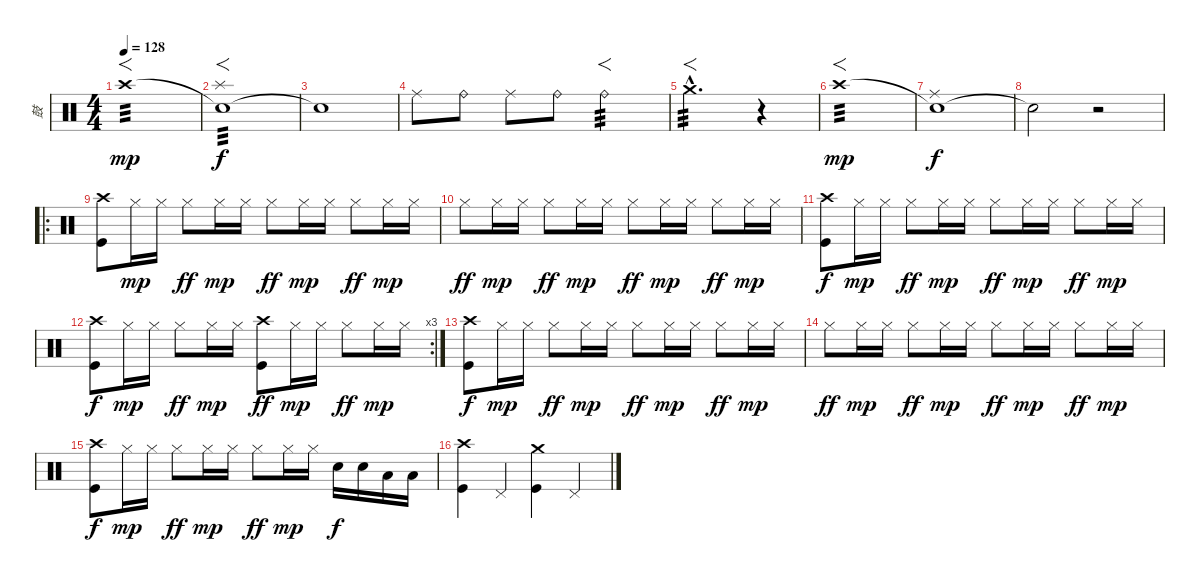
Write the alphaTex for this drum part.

\track ("鼓" "鼓") {instrument percussion}
\staff {score}
\articulation defaults
\ts (4 4)
\tempo 128
\clef neutral
\ks c "Crash high (hit)".1{f tp 3 dy mp}
|
("Snare (hit)"{t} "Splash (hit)").1{f tp 3 dy f} |
"Snare (hit)"{t}.1 |
"Ride (middle)".8 "Ride (bell)".8 "Ride (middle)".8 "Ride (bell)".8 "Ride (bell)".2{f tp 3} |
"Crash medium (hit)"{hac}.2{f d tp 3} r.4 |
"Crash high (hit)".1{f tp 3 dy mp} |
("Snare (hit)"{t} "Ride (middle)").1{dy f} |
"Snare (hit)"{t}.2 r.2 |
\ro
("Crash high (hit)" "Kick (hit)").8 "Hi-Hat (closed)".16{dy mp} "Hi-Hat (closed)".16 "Hi-Hat (closed)".8{dy ff} "Hi-Hat (closed)".16{dy mp} "Hi-Hat (closed)".16 "Hi-Hat (closed)".8{dy ff} "Hi-Hat (closed)".16{dy mp} "Hi-Hat (closed)".16 "Hi-Hat (closed)".8{dy ff} "Hi-Hat (closed)".16{dy mp} "Hi-Hat (closed)".16 |
"Hi-Hat (closed)".8{dy ff} "Hi-Hat (closed)".16{dy mp} "Hi-Hat (closed)".16 "Hi-Hat (closed)".8{dy ff} "Hi-Hat (closed)".16{dy mp} "Hi-Hat (closed)".16 "Hi-Hat (closed)".8{dy ff} "Hi-Hat (closed)".16{dy mp} "Hi-Hat (closed)".16 "Hi-Hat (closed)".8{dy ff} "Hi-Hat (closed)".16{dy mp} "Hi-Hat (closed)".16 |
("Crash high (hit)" "Kick (hit)").8{dy f} "Hi-Hat (closed)".16{dy mp} "Hi-Hat (closed)".16 "Hi-Hat (closed)".8{dy ff} "Hi-Hat (closed)".16{dy mp} "Hi-Hat (closed)".16 "Hi-Hat (closed)".8{dy ff} "Hi-Hat (closed)".16{dy mp} "Hi-Hat (closed)".16 "Hi-Hat (closed)".8{dy ff} "Hi-Hat (closed)".16{dy mp} "Hi-Hat (closed)".16 |
\rc 3
("Crash high (hit)" "Kick (hit)").8{dy f} "Hi-Hat (closed)".16{dy mp} "Hi-Hat (closed)".16 "Hi-Hat (closed)".8{dy ff} "Hi-Hat (closed)".16{dy mp} "Hi-Hat (closed)".16 ("Crash high (hit)" "Kick (hit)").8{dy ff} "Hi-Hat (closed)".16{dy mp} "Hi-Hat (closed)".16 "Hi-Hat (closed)".8{dy ff} "Hi-Hat (closed)".16{dy mp} "Hi-Hat (closed)".16 |
("Crash high (hit)" "Kick (hit)").8{dy f} "Hi-Hat (closed)".16{dy mp} "Hi-Hat (closed)".16 "Hi-Hat (closed)".8{dy ff} "Hi-Hat (closed)".16{dy mp} "Hi-Hat (closed)".16 "Hi-Hat (closed)".8{dy ff} "Hi-Hat (closed)".16{dy mp} "Hi-Hat (closed)".16 "Hi-Hat (closed)".8{dy ff} "Hi-Hat (closed)".16{dy mp} "Hi-Hat (closed)".16 |
"Hi-Hat (closed)".8{dy ff} "Hi-Hat (closed)".16{dy mp} "Hi-Hat (closed)".16 "Hi-Hat (closed)".8{dy ff} "Hi-Hat (closed)".16{dy mp} "Hi-Hat (closed)".16 "Hi-Hat (closed)".8{dy ff} "Hi-Hat (closed)".16{dy mp} "Hi-Hat (closed)".16 "Hi-Hat (closed)".8{dy ff} "Hi-Hat (closed)".16{dy mp} "Hi-Hat (closed)".16 |
("Crash high (hit)" "Kick (hit)").8{dy f} "Hi-Hat (closed)".16{dy mp} "Hi-Hat (closed)".16 "Hi-Hat (closed)".8{dy ff} "Hi-Hat (closed)".16{dy mp} "Hi-Hat (closed)".16 "Hi-Hat (closed)".8{dy ff} "Hi-Hat (closed)".16{dy mp} "Hi-Hat (closed)".16 "Electric Snare (hit)".16{dy f} "Electric Snare (hit)".16 "Low Tom (hit)".16 "Low Tom (hit)".16 |
("Crash high (hit)" "Kick (hit)").4 "Pedal Hi-Hat (hit)".4 ("Crash medium (hit)" "Kick (hit)").4 "Pedal Hi-Hat (hit)".4
